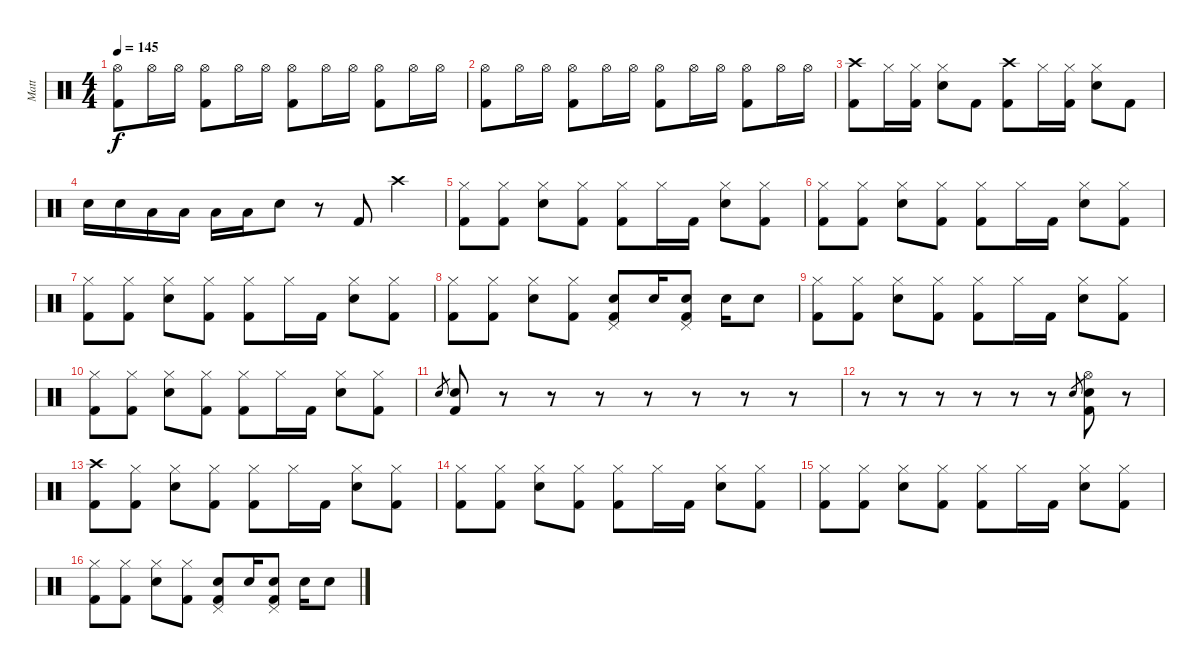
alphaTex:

\track ("Matt" "Matt") {instrument percussion}
\staff {score}
\articulation defaults
\ts (4 4)
\tempo 145
\clef neutral
\ks c
("Hi-Hat (open)" "Kick (hit) 2").8{dy f} "Hi-Hat (open)".16 "Hi-Hat (open)".16 ("Hi-Hat (open)" "Kick (hit) 2").8 "Hi-Hat (open)".16 "Hi-Hat (open)".16 ("Hi-Hat (open)" "Kick (hit) 2").8 "Hi-Hat (open)".16 "Hi-Hat (open)".16 ("Hi-Hat (open)" "Kick (hit) 2").8 "Hi-Hat (open)".16 "Hi-Hat (open)".16 |
("Hi-Hat (open)" "Kick (hit) 2").8 "Hi-Hat (open)".16 "Hi-Hat (open)".16 ("Hi-Hat (open)" "Kick (hit) 2").8 "Hi-Hat (open)".16 "Hi-Hat (open)".16 ("Hi-Hat (open)" "Kick (hit) 2").8 "Hi-Hat (open)".16 "Hi-Hat (open)".16 ("Hi-Hat (open)" "Kick (hit) 2").8 "Hi-Hat (open)".16 "Hi-Hat (open)".16 |
("Crash high (hit)" "Kick (hit) 2").8 "Hi-Hat (closed)".16 ("Hi-Hat (closed)" "Kick (hit) 2").16 ("Hi-Hat (closed)" "Snare (hit) 2").8 "Kick (hit) 2".8 ("Crash high (hit)" "Kick (hit) 2").8 "Hi-Hat (closed)".16 ("Hi-Hat (closed)" "Kick (hit) 2").16 ("Hi-Hat (closed)" "Snare (hit) 2").8 "Kick (hit) 2".8 |
"Snare (hit) 2".16 "Snare (hit) 2".16 "Low Floor Tom (hit)".16 "Low Floor Tom (hit)".16 "Low Tom (hit)".16 "Low Tom (hit)".16 "Snare (hit) 2".8 r.8 "Kick (hit) 2".8 "Crash high (hit)".4 |
("Hi-Hat (closed)" "Kick (hit) 2").8 ("Hi-Hat (closed)" "Kick (hit) 2").8 ("Hi-Hat (closed)" "Snare (hit) 2").8 ("Hi-Hat (closed)" "Kick (hit) 2").8 ("Hi-Hat (closed)" "Kick (hit) 2").8 "Hi-Hat (closed)".16 "Kick (hit) 2".16 ("Hi-Hat (closed)" "Snare (hit) 2").8 ("Hi-Hat (closed)" "Kick (hit) 2").8 |
("Hi-Hat (closed)" "Kick (hit) 2").8 ("Hi-Hat (closed)" "Kick (hit) 2").8 ("Hi-Hat (closed)" "Snare (hit) 2").8 ("Hi-Hat (closed)" "Kick (hit) 2").8 ("Hi-Hat (closed)" "Kick (hit) 2").8 "Hi-Hat (closed)".16 "Kick (hit) 2".16 ("Hi-Hat (closed)" "Snare (hit) 2").8 ("Hi-Hat (closed)" "Kick (hit) 2").8 |
("Hi-Hat (closed)" "Kick (hit) 2").8 ("Hi-Hat (closed)" "Kick (hit) 2").8 ("Hi-Hat (closed)" "Snare (hit) 2").8 ("Hi-Hat (closed)" "Kick (hit) 2").8 ("Hi-Hat (closed)" "Kick (hit) 2").8 "Hi-Hat (closed)".16 "Kick (hit) 2".16 ("Hi-Hat (closed)" "Snare (hit) 2").8 ("Hi-Hat (closed)" "Kick (hit) 2").8 |
("Hi-Hat (closed)" "Kick (hit) 2").8 ("Hi-Hat (closed)" "Kick (hit) 2").8 ("Hi-Hat (closed)" "Snare (hit) 2").8 ("Hi-Hat (closed)" "Kick (hit) 2").8 ("Pedal Hi-Hat (hit)" "Snare (hit) 2" "Kick (hit) 2").8 "Snare (hit) 2".16 ("Pedal Hi-Hat (hit)" "Snare (hit) 2" "Kick (hit) 2").8 "Snare (hit) 2".16 "Snare (hit) 2".8 |
("Hi-Hat (closed)" "Kick (hit) 2").8 ("Hi-Hat (closed)" "Kick (hit) 2").8 ("Hi-Hat (closed)" "Snare (hit) 2").8 ("Hi-Hat (closed)" "Kick (hit) 2").8 ("Hi-Hat (closed)" "Kick (hit) 2").8 "Hi-Hat (closed)".16 "Kick (hit) 2".16 ("Hi-Hat (closed)" "Snare (hit) 2").8 ("Hi-Hat (closed)" "Kick (hit) 2").8 |
("Hi-Hat (closed)" "Kick (hit) 2").8 ("Hi-Hat (closed)" "Kick (hit) 2").8 ("Hi-Hat (closed)" "Snare (hit) 2").8 ("Hi-Hat (closed)" "Kick (hit) 2").8 ("Hi-Hat (closed)" "Kick (hit) 2").8 "Hi-Hat (closed)".16 "Kick (hit) 2".16 ("Hi-Hat (closed)" "Snare (hit) 2").8 ("Hi-Hat (closed)" "Kick (hit) 2").8 |
"Snare (hit) 2".8{gr} ("Snare (hit) 2" "Kick (hit) 2").8 r.8 r.8 r.8 r.8 r.8 r.8 r.8 |
r.8 r.8 r.8 r.8 r.8 r.8 "Snare (hit) 2".8{gr} ("Hi-Hat (open)" "Snare (hit) 2" "Kick (hit) 2").8 r.8 |
("Crash high (hit)" "Kick (hit) 2").8 ("Hi-Hat (closed)" "Kick (hit) 2").8 ("Hi-Hat (closed)" "Snare (hit) 2").8 ("Hi-Hat (closed)" "Kick (hit) 2").8 ("Hi-Hat (closed)" "Kick (hit) 2").8 "Hi-Hat (closed)".16 "Kick (hit) 2".16 ("Hi-Hat (closed)" "Snare (hit) 2").8 ("Hi-Hat (closed)" "Kick (hit) 2").8 |
("Hi-Hat (closed)" "Kick (hit) 2").8 ("Hi-Hat (closed)" "Kick (hit) 2").8 ("Hi-Hat (closed)" "Snare (hit) 2").8 ("Hi-Hat (closed)" "Kick (hit) 2").8 ("Hi-Hat (closed)" "Kick (hit) 2").8 "Hi-Hat (closed)".16 "Kick (hit) 2".16 ("Hi-Hat (closed)" "Snare (hit) 2").8 ("Hi-Hat (closed)" "Kick (hit) 2").8 |
("Hi-Hat (closed)" "Kick (hit) 2").8 ("Hi-Hat (closed)" "Kick (hit) 2").8 ("Hi-Hat (closed)" "Snare (hit) 2").8 ("Hi-Hat (closed)" "Kick (hit) 2").8 ("Hi-Hat (closed)" "Kick (hit) 2").8 "Hi-Hat (closed)".16 "Kick (hit) 2".16 ("Hi-Hat (closed)" "Snare (hit) 2").8 ("Hi-Hat (closed)" "Kick (hit) 2").8 |
("Hi-Hat (closed)" "Kick (hit) 2").8 ("Hi-Hat (closed)" "Kick (hit) 2").8 ("Hi-Hat (closed)" "Snare (hit) 2").8 ("Hi-Hat (closed)" "Kick (hit) 2").8 ("Pedal Hi-Hat (hit)" "Snare (hit) 2" "Kick (hit) 2").8 "Snare (hit) 2".16 ("Pedal Hi-Hat (hit)" "Snare (hit) 2" "Kick (hit) 2").8 "Snare (hit) 2".16 "Snare (hit) 2".8
